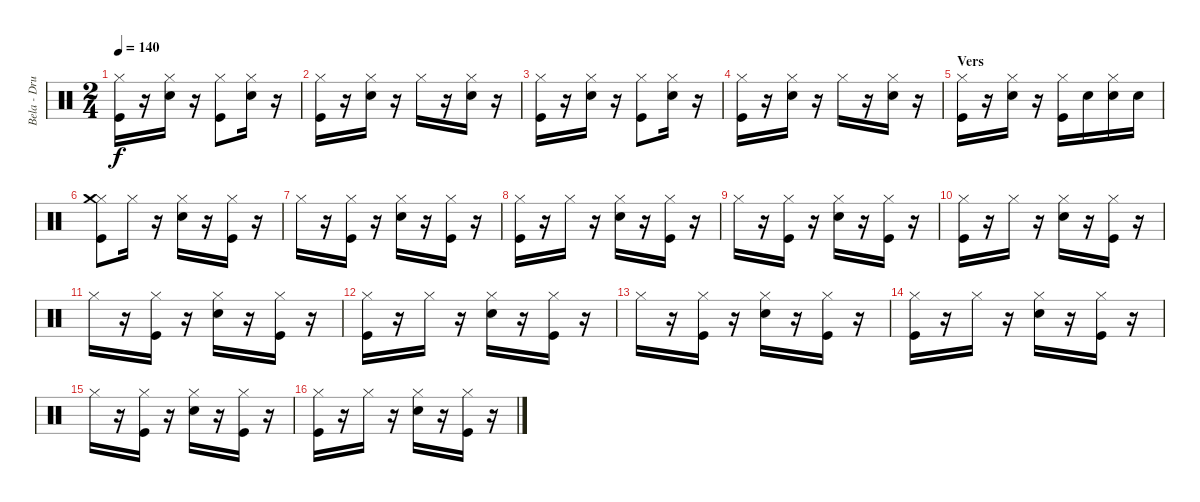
\track ("Bela - Drums" "Bela - Dru") {instrument percussion}
\staff {score}
\articulation defaults
\ts (2 4)
\tempo 140
\clef neutral
\ks c
("Kick (hit)" "Hi-Hat (closed)").16{dy f} r.16 ("Electric Snare (hit)" "Hi-Hat (closed)").16 r.16 ("Hi-Hat (closed)" "Kick (hit)").8 ("Electric Snare (hit)" "Hi-Hat (closed)").16 r.16 |
("Kick (hit)" "Hi-Hat (closed)").16 r.16 ("Electric Snare (hit)" "Hi-Hat (closed)").16 r.16 "Hi-Hat (closed)".16 r.16 ("Electric Snare (hit)" "Hi-Hat (closed)").16 r.16 |
("Kick (hit)" "Hi-Hat (closed)").16 r.16 ("Electric Snare (hit)" "Hi-Hat (closed)").16 r.16 ("Hi-Hat (closed)" "Kick (hit)").8 ("Electric Snare (hit)" "Hi-Hat (closed)").16 r.16 |
("Kick (hit)" "Hi-Hat (closed)").16 r.16 ("Electric Snare (hit)" "Hi-Hat (closed)").16 r.16 "Hi-Hat (closed)".16 r.16 ("Electric Snare (hit)" "Hi-Hat (closed)").16 r.16 |
\section ("" "Vers")
("Kick (hit)" "Hi-Hat (closed)").16 r.16 ("Electric Snare (hit)" "Hi-Hat (closed)").16 r.16 ("Hi-Hat (closed)" "Kick (hit)").16 "Electric Snare (hit)".16 ("Electric Snare (hit)" "Hi-Hat (closed)").16 "Electric Snare (hit)".16 |
("Kick (hit)" "Hi-Hat (closed)" "Crash medium (hit)").8 "Hi-Hat (closed)".16 r.16 ("Electric Snare (hit)" "Hi-Hat (closed)").16 r.16 ("Kick (hit)" "Hi-Hat (closed)").16 r.16 |
"Hi-Hat (closed)".16 r.16 ("Kick (hit)" "Hi-Hat (closed)").16 r.16 ("Electric Snare (hit)" "Hi-Hat (closed)").16 r.16 ("Kick (hit)" "Hi-Hat (closed)").16 r.16 |
("Kick (hit)" "Hi-Hat (closed)").16 r.16 "Hi-Hat (closed)".16 r.16 ("Electric Snare (hit)" "Hi-Hat (closed)").16 r.16 ("Kick (hit)" "Hi-Hat (closed)").16 r.16 |
"Hi-Hat (closed)".16 r.16 ("Kick (hit)" "Hi-Hat (closed)").16 r.16 ("Electric Snare (hit)" "Hi-Hat (closed)").16 r.16 ("Kick (hit)" "Hi-Hat (closed)").16 r.16 |
("Kick (hit)" "Hi-Hat (closed)").16 r.16 "Hi-Hat (closed)".16 r.16 ("Electric Snare (hit)" "Hi-Hat (closed)").16 r.16 ("Kick (hit)" "Hi-Hat (closed)").16 r.16 |
"Hi-Hat (closed)".16 r.16 ("Kick (hit)" "Hi-Hat (closed)").16 r.16 ("Electric Snare (hit)" "Hi-Hat (closed)").16 r.16 ("Kick (hit)" "Hi-Hat (closed)").16 r.16 |
("Kick (hit)" "Hi-Hat (closed)").16 r.16 "Hi-Hat (closed)".16 r.16 ("Electric Snare (hit)" "Hi-Hat (closed)").16 r.16 ("Kick (hit)" "Hi-Hat (closed)").16 r.16 |
"Hi-Hat (closed)".16 r.16 ("Kick (hit)" "Hi-Hat (closed)").16 r.16 ("Electric Snare (hit)" "Hi-Hat (closed)").16 r.16 ("Kick (hit)" "Hi-Hat (closed)").16 r.16 |
("Kick (hit)" "Hi-Hat (closed)").16 r.16 "Hi-Hat (closed)".16 r.16 ("Electric Snare (hit)" "Hi-Hat (closed)").16 r.16 ("Kick (hit)" "Hi-Hat (closed)").16 r.16 |
"Hi-Hat (closed)".16 r.16 ("Kick (hit)" "Hi-Hat (closed)").16 r.16 ("Electric Snare (hit)" "Hi-Hat (closed)").16 r.16 ("Kick (hit)" "Hi-Hat (closed)").16 r.16 |
("Kick (hit)" "Hi-Hat (closed)").16 r.16 "Hi-Hat (closed)".16 r.16 ("Electric Snare (hit)" "Hi-Hat (closed)").16 r.16 ("Kick (hit)" "Hi-Hat (closed)").16 r.16
